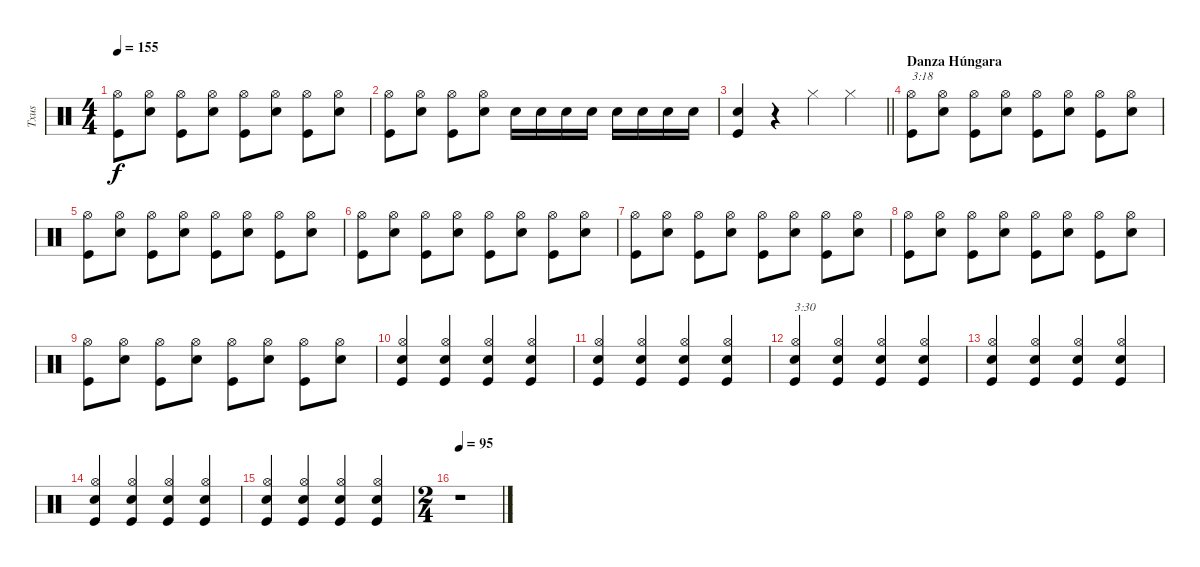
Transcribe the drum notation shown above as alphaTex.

\track ("Txus" "Txus") {instrument percussion}
\staff {score}
\articulation defaults
\ts (4 4)
\tempo 155
\clef neutral
\ks c
("Kick (hit)" "Hi-Hat (open)").8{dy f} ("Snare (hit) 2" "Hi-Hat (open)").8 ("Kick (hit)" "Hi-Hat (open)").8 ("Snare (hit) 2" "Hi-Hat (open)").8 ("Kick (hit)" "Hi-Hat (open)").8 ("Snare (hit) 2" "Hi-Hat (open)").8 ("Kick (hit)" "Hi-Hat (open)").8 ("Snare (hit) 2" "Hi-Hat (open)").8 |
("Kick (hit)" "Hi-Hat (open)").8 ("Snare (hit) 2" "Hi-Hat (open)").8 ("Kick (hit)" "Hi-Hat (open)").8 ("Snare (hit) 2" "Hi-Hat (open)").8 "Snare (hit) 2".16 "Snare (hit) 2".16 "Snare (hit) 2".16 "Snare (hit) 2".16 "Snare (hit) 2".16 "Snare (hit) 2".16 "Snare (hit) 2".16 "Snare (hit) 2".16 |
\barLineRight lightlight
("Kick (hit)" "Snare (hit) 2").4 r.4 "Hi-Hat (closed)".4 "Hi-Hat (closed)".4 |
\section ("" "Danza Húngara")
("Kick (hit)" "Hi-Hat (open)").8{txt "3:18"} ("Snare (hit) 2" "Hi-Hat (open)").8 ("Kick (hit)" "Hi-Hat (open)").8 ("Snare (hit) 2" "Hi-Hat (open)").8 ("Kick (hit)" "Hi-Hat (open)").8 ("Snare (hit) 2" "Hi-Hat (open)").8 ("Kick (hit)" "Hi-Hat (open)").8 ("Snare (hit) 2" "Hi-Hat (open)").8 |
("Kick (hit)" "Hi-Hat (open)").8 ("Snare (hit) 2" "Hi-Hat (open)").8 ("Kick (hit)" "Hi-Hat (open)").8 ("Snare (hit) 2" "Hi-Hat (open)").8 ("Kick (hit)" "Hi-Hat (open)").8 ("Snare (hit) 2" "Hi-Hat (open)").8 ("Kick (hit)" "Hi-Hat (open)").8 ("Snare (hit) 2" "Hi-Hat (open)").8 |
("Kick (hit)" "Hi-Hat (open)").8 ("Snare (hit) 2" "Hi-Hat (open)").8 ("Kick (hit)" "Hi-Hat (open)").8 ("Snare (hit) 2" "Hi-Hat (open)").8 ("Kick (hit)" "Hi-Hat (open)").8 ("Snare (hit) 2" "Hi-Hat (open)").8 ("Kick (hit)" "Hi-Hat (open)").8 ("Snare (hit) 2" "Hi-Hat (open)").8 |
("Kick (hit)" "Hi-Hat (open)").8 ("Snare (hit) 2" "Hi-Hat (open)").8 ("Kick (hit)" "Hi-Hat (open)").8 ("Snare (hit) 2" "Hi-Hat (open)").8 ("Kick (hit)" "Hi-Hat (open)").8 ("Snare (hit) 2" "Hi-Hat (open)").8 ("Kick (hit)" "Hi-Hat (open)").8 ("Snare (hit) 2" "Hi-Hat (open)").8 |
("Kick (hit)" "Hi-Hat (open)").8 ("Snare (hit) 2" "Hi-Hat (open)").8 ("Kick (hit)" "Hi-Hat (open)").8 ("Snare (hit) 2" "Hi-Hat (open)").8 ("Kick (hit)" "Hi-Hat (open)").8 ("Snare (hit) 2" "Hi-Hat (open)").8 ("Kick (hit)" "Hi-Hat (open)").8 ("Snare (hit) 2" "Hi-Hat (open)").8 |
("Kick (hit)" "Hi-Hat (open)").8 ("Snare (hit) 2" "Hi-Hat (open)").8 ("Kick (hit)" "Hi-Hat (open)").8 ("Snare (hit) 2" "Hi-Hat (open)").8 ("Kick (hit)" "Hi-Hat (open)").8 ("Snare (hit) 2" "Hi-Hat (open)").8 ("Kick (hit)" "Hi-Hat (open)").8 ("Snare (hit) 2" "Hi-Hat (open)").8 |
("Kick (hit)" "Snare (hit) 2" "Hi-Hat (open)").4 ("Kick (hit)" "Snare (hit) 2" "Hi-Hat (open)").4 ("Kick (hit)" "Snare (hit) 2" "Hi-Hat (open)").4 ("Kick (hit)" "Snare (hit) 2" "Hi-Hat (open)").4 |
("Kick (hit)" "Snare (hit) 2" "Hi-Hat (open)").4 ("Kick (hit)" "Snare (hit) 2" "Hi-Hat (open)").4 ("Kick (hit)" "Snare (hit) 2" "Hi-Hat (open)").4 ("Kick (hit)" "Snare (hit) 2" "Hi-Hat (open)").4 |
("Kick (hit)" "Snare (hit) 2" "Hi-Hat (open)").4{txt "3:30"} ("Kick (hit)" "Snare (hit) 2" "Hi-Hat (open)").4 ("Kick (hit)" "Snare (hit) 2" "Hi-Hat (open)").4 ("Kick (hit)" "Snare (hit) 2" "Hi-Hat (open)").4 |
("Kick (hit)" "Snare (hit) 2" "Hi-Hat (open)").4 ("Kick (hit)" "Snare (hit) 2" "Hi-Hat (open)").4 ("Kick (hit)" "Snare (hit) 2" "Hi-Hat (open)").4 ("Kick (hit)" "Snare (hit) 2" "Hi-Hat (open)").4 |
("Kick (hit)" "Snare (hit) 2" "Hi-Hat (open)").4 ("Kick (hit)" "Snare (hit) 2" "Hi-Hat (open)").4 ("Kick (hit)" "Snare (hit) 2" "Hi-Hat (open)").4 ("Kick (hit)" "Snare (hit) 2" "Hi-Hat (open)").4 |
("Kick (hit)" "Snare (hit) 2" "Hi-Hat (open)").4 ("Kick (hit)" "Snare (hit) 2" "Hi-Hat (open)").4 ("Kick (hit)" "Snare (hit) 2" "Hi-Hat (open)").4 ("Kick (hit)" "Snare (hit) 2" "Hi-Hat (open)").4 |
\ts (2 4)
\tempo 95
r.1
